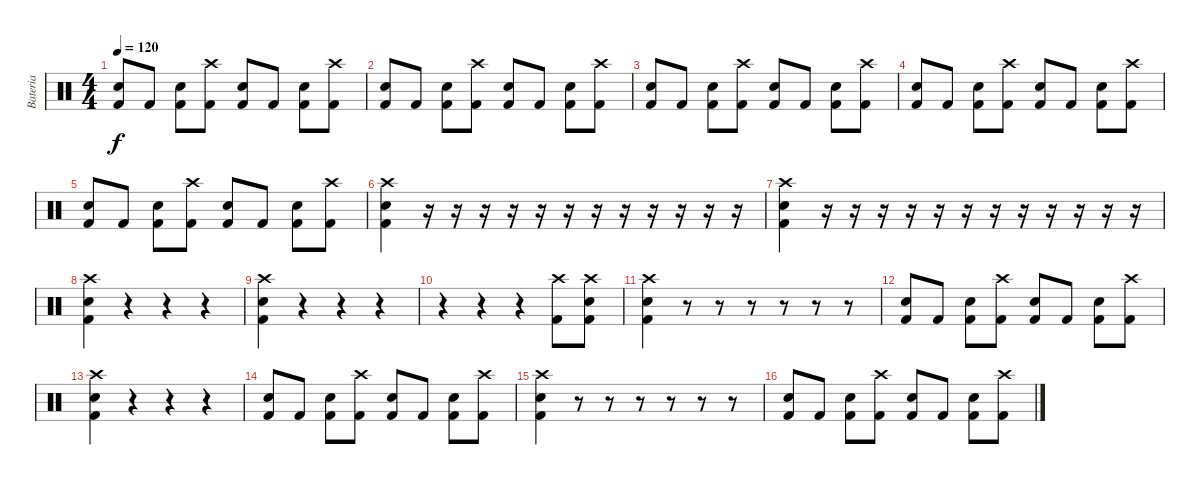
\track ("Bateria" "Bateria") {instrument percussion}
\staff {score}
\articulation defaults
\ts (4 4)
\tempo 120
\clef neutral
\ks c
("Kick (hit) 2" "Electric Snare (hit)").8{dy f} "Kick (hit) 2".8 ("Kick (hit) 2" "Electric Snare (hit)").8 ("Kick (hit) 2" "Crash high (hit)").8 ("Kick (hit) 2" "Electric Snare (hit)").8 "Kick (hit) 2".8 ("Kick (hit) 2" "Electric Snare (hit)").8 ("Kick (hit) 2" "Crash high (hit)").8 |
("Kick (hit) 2" "Electric Snare (hit)").8 "Kick (hit) 2".8 ("Kick (hit) 2" "Electric Snare (hit)").8 ("Kick (hit) 2" "Crash high (hit)").8 ("Kick (hit) 2" "Electric Snare (hit)").8 "Kick (hit) 2".8 ("Kick (hit) 2" "Electric Snare (hit)").8 ("Kick (hit) 2" "Crash high (hit)").8 |
("Kick (hit) 2" "Electric Snare (hit)").8 "Kick (hit) 2".8 ("Kick (hit) 2" "Electric Snare (hit)").8 ("Kick (hit) 2" "Crash high (hit)").8 ("Kick (hit) 2" "Electric Snare (hit)").8 "Kick (hit) 2".8 ("Kick (hit) 2" "Electric Snare (hit)").8 ("Kick (hit) 2" "Crash high (hit)").8 |
("Kick (hit) 2" "Electric Snare (hit)").8 "Kick (hit) 2".8 ("Kick (hit) 2" "Electric Snare (hit)").8 ("Kick (hit) 2" "Crash high (hit)").8 ("Kick (hit) 2" "Electric Snare (hit)").8 "Kick (hit) 2".8 ("Kick (hit) 2" "Electric Snare (hit)").8 ("Kick (hit) 2" "Crash high (hit)").8 |
("Kick (hit) 2" "Electric Snare (hit)").8 "Kick (hit) 2".8 ("Kick (hit) 2" "Electric Snare (hit)").8 ("Kick (hit) 2" "Crash high (hit)").8 ("Kick (hit) 2" "Electric Snare (hit)").8 "Kick (hit) 2".8 ("Kick (hit) 2" "Electric Snare (hit)").8 ("Kick (hit) 2" "Crash high (hit)").8 |
("Crash high (hit)" "Electric Snare (hit)" "Kick (hit) 2").4 r.16 r.16 r.16 r.16 r.16 r.16 r.16 r.16 r.16 r.16 r.16 r.16 |
("Crash high (hit)" "Electric Snare (hit)" "Kick (hit) 2").4 r.16 r.16 r.16 r.16 r.16 r.16 r.16 r.16 r.16 r.16 r.16 r.16 |
("Electric Snare (hit)" "Crash high (hit)" "Kick (hit) 2").4 r.4 r.4 r.4 |
("Electric Snare (hit)" "Crash high (hit)" "Kick (hit) 2").4 r.4 r.4 r.4 |
r.4 r.4 r.4 ("Kick (hit) 2" "Crash high (hit)").8 ("Kick (hit) 2" "Electric Snare (hit)" "Crash high (hit)").8 |
("Crash high (hit)" "Electric Snare (hit)" "Kick (hit) 2").4 r.8 r.8 r.8 r.8 r.8 r.8 |
("Kick (hit) 2" "Electric Snare (hit)").8 "Kick (hit) 2".8 ("Kick (hit) 2" "Electric Snare (hit)").8 ("Kick (hit) 2" "Crash high (hit)").8 ("Kick (hit) 2" "Electric Snare (hit)").8 "Kick (hit) 2".8 ("Kick (hit) 2" "Electric Snare (hit)").8 ("Kick (hit) 2" "Crash high (hit)").8 |
("Kick (hit) 2" "Electric Snare (hit)" "Crash high (hit)").4 r.4 r.4 r.4 |
("Kick (hit) 2" "Electric Snare (hit)").8 "Kick (hit) 2".8 ("Kick (hit) 2" "Electric Snare (hit)").8 ("Kick (hit) 2" "Crash high (hit)").8 ("Kick (hit) 2" "Electric Snare (hit)").8 "Kick (hit) 2".8 ("Kick (hit) 2" "Electric Snare (hit)").8 ("Kick (hit) 2" "Crash high (hit)").8 |
("Crash high (hit)" "Electric Snare (hit)" "Kick (hit) 2").4 r.8 r.8 r.8 r.8 r.8 r.8 |
("Kick (hit) 2" "Electric Snare (hit)").8 "Kick (hit) 2".8 ("Kick (hit) 2" "Electric Snare (hit)").8 ("Kick (hit) 2" "Crash high (hit)").8 ("Kick (hit) 2" "Electric Snare (hit)").8 "Kick (hit) 2".8 ("Kick (hit) 2" "Electric Snare (hit)").8 ("Kick (hit) 2" "Crash high (hit)").8
